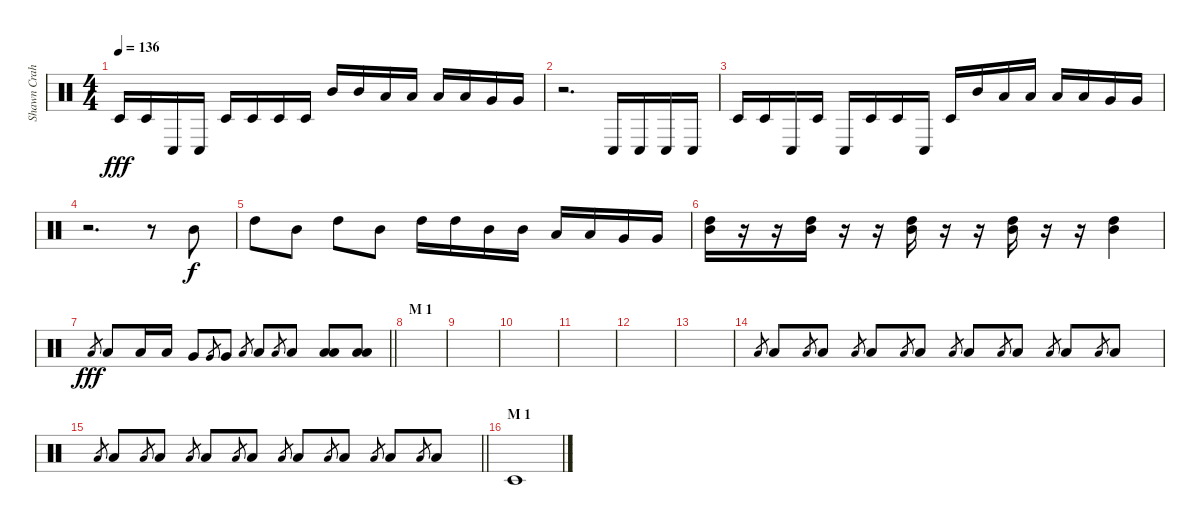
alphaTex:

\track ("Shawn Crahan" "Shawn Crah") {instrument percussion}
\staff {score}
\articulation defaults
\ts (4 4)
\tempo 136
\clef neutral
\ks c "Timbale low (hit)".16{dy fff} "Timbale low (hit)".16 "Conga low (hit)".16 "Conga low (hit)".16 "Timbale low (hit)".16 "Timbale low (hit)".16 "Timbale low (hit)".16 "Timbale low (hit)".16 "Mid Tom (hit)".16 "Mid Tom (hit)".16 "Low Tom (hit)".16 "Low Tom (hit)".16 "Low Tom (hit)".16 "Low Tom (hit)".16 "Very Low Tom (hit)".16 "Very Low Tom (hit)".16
|
r.2{d} "Conga low (hit)".16 "Conga low (hit)".16 "Conga low (hit)".16 "Conga low (hit)".16 |
"Timbale low (hit)".16 "Timbale low (hit)".16 "Conga low (hit)".16 "Timbale low (hit)".16 "Conga low (hit)".16 "Timbale low (hit)".16 "Timbale low (hit)".16 "Conga low (hit)".16 "Timbale low (hit)".16 "Mid Tom (hit)".16 "Low Tom (hit)".16 "Low Tom (hit)".16 "Low Tom (hit)".16 "Low Tom (hit)".16 "Very Low Tom (hit)".16 "Very Low Tom (hit)".16 |
r.2{d} r.8 "Mid Tom (hit)".8{dy f} |
"High Tom (hit)".8 "Mid Tom (hit)".8 "High Tom (hit)".8 "Mid Tom (hit)".8 "High Tom (hit)".16 "High Tom (hit)".16 "Mid Tom (hit)".16 "Mid Tom (hit)".16 "Low Tom (hit)".16 "Low Tom (hit)".16 "Very Low Tom (hit)".16 "Very Low Tom (hit)".16 |
("High Tom (hit)" "Mid Tom (hit)").16 r.16 r.16 ("High Tom (hit)" "Mid Tom (hit)").16 r.16 r.16 ("High Tom (hit)" "Mid Tom (hit)").16 r.16 r.16 ("High Tom (hit)" "Mid Tom (hit)").16 r.16 r.16 ("High Tom (hit)" "Mid Tom (hit)").4 |
\barLineRight lightlight "Low Tom (hit)".8{gr dy fff} "Low Tom (hit)".8 "Low Tom (hit)".16 "Low Tom (hit)".16 "Very Low Tom (hit)".8 "Very Low Tom (hit)".8{gr} "Very Low Tom (hit)".8 "Low Floor Tom (hit)".8{gr} "Low Floor Tom (hit)".8 "Low Floor Tom (hit)".8{gr} "Low Floor Tom (hit)".8
("Low Floor Tom (hit)" "Low Floor Tom (hit)").8 ("Low Floor Tom (hit)" "Low Floor Tom (hit)").8 |
\section ("" "M 1")
|
|
|
|
|
|
"Low Floor Tom (hit)".8{gr} "Low Floor Tom (hit)".8 "Low Floor Tom (hit)".8{gr} "Low Floor Tom (hit)".8 "Low Floor Tom (hit)".8{gr} "Low Floor Tom (hit)".8 "Low Floor Tom (hit)".8{gr} "Low Floor Tom (hit)".8 "Low Floor Tom (hit)".8{gr} "Low Floor Tom (hit)".8 "Low Floor Tom (hit)".8{gr} "Low Floor Tom (hit)".8 "Low Floor Tom (hit)".8{gr} "Low Floor Tom (hit)".8 "Low Floor Tom (hit)".8{gr} "Low Floor Tom (hit)".8 |
\barLineRight lightlight "Low Floor Tom (hit)".8{gr} "Low Floor Tom (hit)".8 "Low Floor Tom (hit)".8{gr} "Low Floor Tom (hit)".8 "Low Floor Tom (hit)".8{gr} "Low Floor Tom (hit)".8 "Low Floor Tom (hit)".8{gr} "Low Floor Tom (hit)".8 "Low Floor Tom (hit)".8{gr} "Low Floor Tom (hit)".8 "Low Floor Tom (hit)".8{gr} "Low Floor Tom (hit)".8 "Low Floor Tom (hit)".8{gr} "Low Floor Tom (hit)".8 "Low Floor Tom (hit)".8{gr} "Low Floor Tom (hit)".8
|
\section ("" "M 1")
"Timbale low (hit)".1
